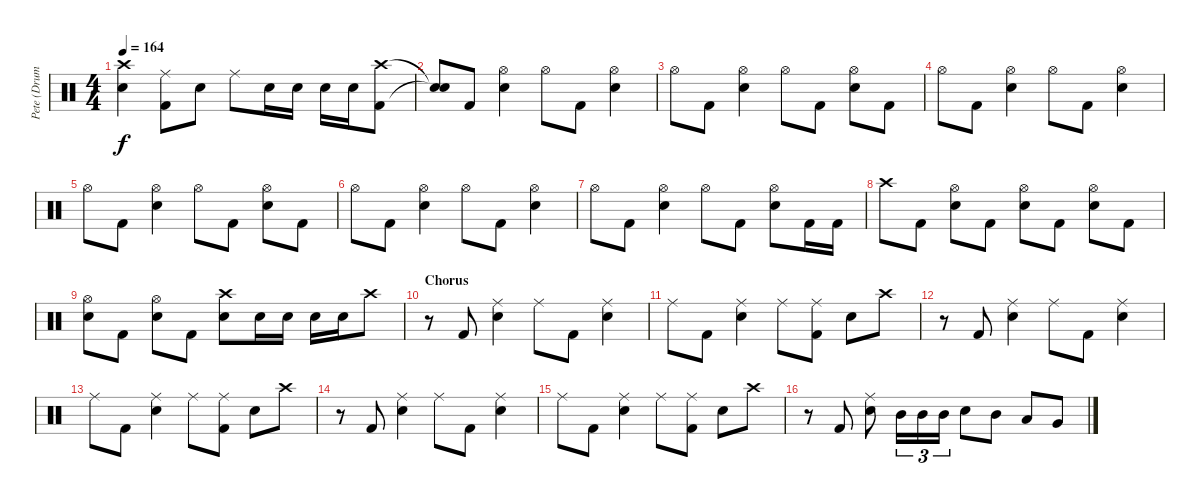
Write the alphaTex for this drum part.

\track ("Pete (Drums)" "Pete (Drum") {instrument percussion}
\staff {score}
\articulation defaults
\ts (4 4)
\tempo 164
\clef neutral
\ks c
("Crash high (hit)" "Snare (hit) 2").4{dy f} ("Ride (middle)" "Kick (hit) 2").8 "Snare (hit) 2".8 "Ride (middle)".8 "Snare (hit) 2".16 "Snare (hit) 2".16 "Snare (hit) 2".16 "Snare (hit) 2".16 ("Crash high (hit)" "Kick (hit) 2").8 |
("Snare (hit)"{t} "Snare (hit)"{t}).8 "Kick (hit) 2".8 ("Hi-Hat (open)" "Snare (hit) 2").4 "Hi-Hat (open)".8 "Kick (hit) 2".8 ("Hi-Hat (open)" "Snare (hit) 2").4 |
"Hi-Hat (open)".8 "Kick (hit) 2".8 ("Hi-Hat (open)" "Snare (hit) 2").4 "Hi-Hat (open)".8 "Kick (hit) 2".8 ("Hi-Hat (open)" "Snare (hit) 2").8 "Kick (hit) 2".8 |
"Hi-Hat (open)".8 "Kick (hit) 2".8 ("Hi-Hat (open)" "Snare (hit) 2").4 "Hi-Hat (open)".8 "Kick (hit) 2".8 ("Hi-Hat (open)" "Snare (hit) 2").4 |
"Hi-Hat (open)".8 "Kick (hit) 2".8 ("Hi-Hat (open)" "Snare (hit) 2").4 "Hi-Hat (open)".8 "Kick (hit) 2".8 ("Hi-Hat (open)" "Snare (hit) 2").8 "Kick (hit) 2".8 |
"Hi-Hat (open)".8 "Kick (hit) 2".8 ("Hi-Hat (open)" "Snare (hit) 2").4 "Hi-Hat (open)".8 "Kick (hit) 2".8 ("Hi-Hat (open)" "Snare (hit) 2").4 |
"Hi-Hat (open)".8 "Kick (hit) 2".8 ("Hi-Hat (open)" "Snare (hit) 2").4 "Hi-Hat (open)".8 "Kick (hit) 2".8 ("Hi-Hat (open)" "Snare (hit) 2").8 "Kick (hit) 2".16 "Kick (hit) 2".16 |
"Crash high (hit)".8 "Kick (hit) 2".8 ("Hi-Hat (open)" "Snare (hit) 2").8 "Kick (hit) 2".8 ("Hi-Hat (open)" "Snare (hit) 2").8 "Kick (hit) 2".8 ("Hi-Hat (open)" "Snare (hit) 2").8 "Kick (hit) 2".8 |
("Hi-Hat (open)" "Snare (hit) 2").8 "Kick (hit) 2".8 ("Hi-Hat (open)" "Snare (hit) 2").8 "Kick (hit) 2".8 ("Crash high (hit)" "Snare (hit) 2").8 "Snare (hit) 2".16 "Snare (hit) 2".16 "Snare (hit) 2".16 "Snare (hit) 2".16 "Crash high (hit)".8 |
\section ("" "Chorus")
r.8 "Kick (hit) 2".8 ("Ride (middle)" "Snare (hit) 2").4 "Ride (middle)".8 "Kick (hit) 2".8 ("Ride (middle)" "Snare (hit) 2").4 |
"Ride (middle)".8 "Kick (hit) 2".8 ("Ride (middle)" "Snare (hit) 2").4 "Ride (middle)".8 ("Ride (middle)" "Kick (hit) 2").8 "Snare (hit) 2".8 "Crash high (hit)".8 |
r.8 "Kick (hit) 2".8 ("Ride (middle)" "Snare (hit) 2").4 "Ride (middle)".8 "Kick (hit) 2".8 ("Ride (middle)" "Snare (hit) 2").4 |
"Ride (middle)".8 "Kick (hit) 2".8 ("Ride (middle)" "Snare (hit) 2").4 "Ride (middle)".8 ("Ride (middle)" "Kick (hit) 2").8 "Snare (hit) 2".8 "Crash high (hit)".8 |
r.8 "Kick (hit) 2".8 ("Ride (middle)" "Snare (hit) 2").4 "Ride (middle)".8 "Kick (hit) 2".8 ("Ride (middle)" "Snare (hit) 2").4 |
"Ride (middle)".8 "Kick (hit) 2".8 ("Ride (middle)" "Snare (hit) 2").4 "Ride (middle)".8 ("Ride (middle)" "Kick (hit) 2").8 "Snare (hit) 2".8 "Crash high (hit)".8 |
r.8 "Kick (hit) 2".8 ("Ride (middle)" "Snare (hit) 2").8 "Mid Tom (hit)".16{tu (3 2)} "Mid Tom (hit)".16{tu (3 2)} "Mid Tom (hit)".16{tu (3 2)} "Snare (hit) 2".8 "Mid Tom (hit)".8 "Low Tom (hit)".8 "Very Low Tom (hit)".8
